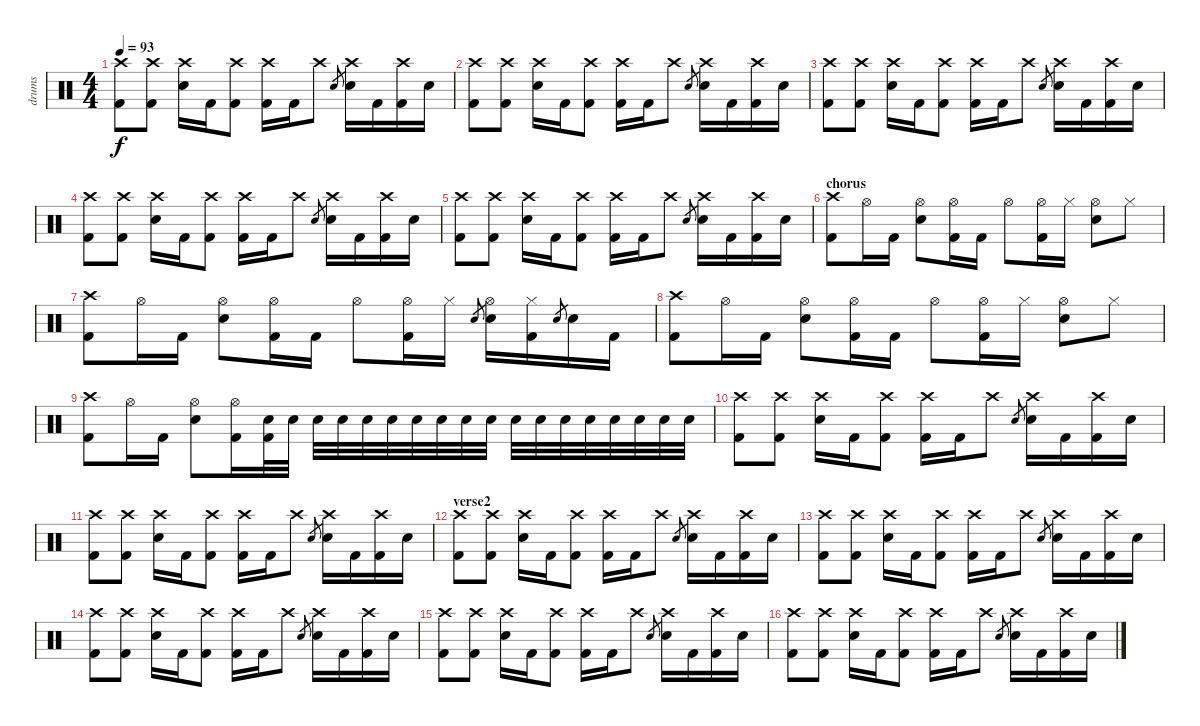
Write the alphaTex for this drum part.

\track ("drums" "drums") {instrument percussion}
\staff {score}
\articulation defaults
\ts (4 4)
\tempo 93
\clef neutral
\ks c
("Crash high (hit)" "Kick (hit) 2").8{dy f} ("Crash high (hit)" "Kick (hit) 2").8 ("Crash high (hit)" "Electric Snare (hit)").16 "Kick (hit) 2".16 ("Crash high (hit)" "Kick (hit) 2").8 ("Crash high (hit)" "Kick (hit) 2").16 "Kick (hit) 2".16 "Crash high (hit)".8 "Electric Snare (hit)".8{gr} ("Crash high (hit)" "Electric Snare (hit)").16 "Kick (hit) 2".16 ("Crash high (hit)" "Kick (hit) 2").16 "Electric Snare (hit)".16 |
("Crash high (hit)" "Kick (hit) 2").8 ("Crash high (hit)" "Kick (hit) 2").8 ("Crash high (hit)" "Electric Snare (hit)").16 "Kick (hit) 2".16 ("Crash high (hit)" "Kick (hit) 2").8 ("Crash high (hit)" "Kick (hit) 2").16 "Kick (hit) 2".16 "Crash high (hit)".8 "Electric Snare (hit)".8{gr} ("Crash high (hit)" "Electric Snare (hit)").16 "Kick (hit) 2".16 ("Crash high (hit)" "Kick (hit) 2").16 "Electric Snare (hit)".16 |
("Crash high (hit)" "Kick (hit) 2").8 ("Crash high (hit)" "Kick (hit) 2").8 ("Crash high (hit)" "Electric Snare (hit)").16 "Kick (hit) 2".16 ("Crash high (hit)" "Kick (hit) 2").8 ("Crash high (hit)" "Kick (hit) 2").16 "Kick (hit) 2".16 "Crash high (hit)".8 "Electric Snare (hit)".8{gr} ("Crash high (hit)" "Electric Snare (hit)").16 "Kick (hit) 2".16 ("Crash high (hit)" "Kick (hit) 2").16 "Electric Snare (hit)".16 |
("Crash high (hit)" "Kick (hit) 2").8 ("Crash high (hit)" "Kick (hit) 2").8 ("Crash high (hit)" "Electric Snare (hit)").16 "Kick (hit) 2".16 ("Crash high (hit)" "Kick (hit) 2").8 ("Crash high (hit)" "Kick (hit) 2").16 "Kick (hit) 2".16 "Crash high (hit)".8 "Electric Snare (hit)".8{gr} ("Crash high (hit)" "Electric Snare (hit)").16 "Kick (hit) 2".16 ("Crash high (hit)" "Kick (hit) 2").16 "Electric Snare (hit)".16 |
("Crash high (hit)" "Kick (hit) 2").8 ("Crash high (hit)" "Kick (hit) 2").8 ("Crash high (hit)" "Electric Snare (hit)").16 "Kick (hit) 2".16 ("Crash high (hit)" "Kick (hit) 2").8 ("Crash high (hit)" "Kick (hit) 2").16 "Kick (hit) 2".16 "Crash high (hit)".8 "Electric Snare (hit)".8{gr} ("Crash high (hit)" "Electric Snare (hit)").16 "Kick (hit) 2".16 ("Crash high (hit)" "Kick (hit) 2").16 "Electric Snare (hit)".16 |
\section ("" "chorus")
("Crash high (hit)" "Kick (hit) 2").8 "Hi-Hat (open)".16 "Kick (hit) 2".16 ("Hi-Hat (open)" "Electric Snare (hit)").8 ("Hi-Hat (open)" "Kick (hit) 2").16 "Kick (hit) 2".16 "Hi-Hat (open)".8 ("Hi-Hat (open)" "Kick (hit) 2").16 "Hi-Hat (closed)".16 ("Hi-Hat (open)" "Electric Snare (hit)").8 "Hi-Hat (closed)".8 |
("Crash high (hit)" "Kick (hit) 2").8 "Hi-Hat (open)".16 "Kick (hit) 2".16 ("Hi-Hat (open)" "Electric Snare (hit)").8 ("Hi-Hat (open)" "Kick (hit) 2").16 "Kick (hit) 2".16 "Hi-Hat (open)".8 ("Hi-Hat (open)" "Kick (hit) 2").16 "Hi-Hat (closed)".16 "Electric Snare (hit)".8{gr} ("Hi-Hat (open)" "Electric Snare (hit)").16 ("Hi-Hat (closed)" "Kick (hit) 2").16 "Electric Snare (hit)".8{gr} "Electric Snare (hit)".16 "Kick (hit) 2".16 |
("Crash high (hit)" "Kick (hit) 2").8 "Hi-Hat (open)".16 "Kick (hit) 2".16 ("Hi-Hat (open)" "Electric Snare (hit)").8 ("Hi-Hat (open)" "Kick (hit) 2").16 "Kick (hit) 2".16 "Hi-Hat (open)".8 ("Hi-Hat (open)" "Kick (hit) 2").16 "Hi-Hat (closed)".16 ("Hi-Hat (open)" "Electric Snare (hit)").8 "Hi-Hat (closed)".8 |
("Crash high (hit)" "Kick (hit) 2").8 "Hi-Hat (open)".16 "Kick (hit) 2".16 ("Hi-Hat (open)" "Electric Snare (hit)").8 ("Hi-Hat (open)" "Kick (hit) 2").16 ("Electric Snare (hit)" "Kick (hit) 2").32 "Electric Snare (hit)".32 "Electric Snare (hit)".32 "Electric Snare (hit)".32 "Electric Snare (hit)".32 "Electric Snare (hit)".32 "Electric Snare (hit)".32 "Electric Snare (hit)".32 "Electric Snare (hit)".32 "Electric Snare (hit)".32 "Electric Snare (hit)".32 "Electric Snare (hit)".32 "Electric Snare (hit)".32 "Electric Snare (hit)".32 "Electric Snare (hit)".32 "Electric Snare (hit)".32 "Electric Snare (hit)".32 "Electric Snare (hit)".32 |
("Crash high (hit)" "Kick (hit) 2").8 ("Crash high (hit)" "Kick (hit) 2").8 ("Crash high (hit)" "Electric Snare (hit)").16 "Kick (hit) 2".16 ("Crash high (hit)" "Kick (hit) 2").8 ("Crash high (hit)" "Kick (hit) 2").16 "Kick (hit) 2".16 "Crash high (hit)".8 "Electric Snare (hit)".8{gr} ("Crash high (hit)" "Electric Snare (hit)").16 "Kick (hit) 2".16 ("Crash high (hit)" "Kick (hit) 2").16 "Electric Snare (hit)".16 |
("Crash high (hit)" "Kick (hit) 2").8 ("Crash high (hit)" "Kick (hit) 2").8 ("Crash high (hit)" "Electric Snare (hit)").16 "Kick (hit) 2".16 ("Crash high (hit)" "Kick (hit) 2").8 ("Crash high (hit)" "Kick (hit) 2").16 "Kick (hit) 2".16 "Crash high (hit)".8 "Electric Snare (hit)".8{gr} ("Crash high (hit)" "Electric Snare (hit)").16 "Kick (hit) 2".16 ("Crash high (hit)" "Kick (hit) 2").16 "Electric Snare (hit)".16 |
\section ("" "verse2")
("Crash high (hit)" "Kick (hit) 2").8 ("Crash high (hit)" "Kick (hit) 2").8 ("Crash high (hit)" "Electric Snare (hit)").16 "Kick (hit) 2".16 ("Crash high (hit)" "Kick (hit) 2").8 ("Crash high (hit)" "Kick (hit) 2").16 "Kick (hit) 2".16 "Crash high (hit)".8 "Electric Snare (hit)".8{gr} ("Crash high (hit)" "Electric Snare (hit)").16 "Kick (hit) 2".16 ("Crash high (hit)" "Kick (hit) 2").16 "Electric Snare (hit)".16 |
("Crash high (hit)" "Kick (hit) 2").8 ("Crash high (hit)" "Kick (hit) 2").8 ("Crash high (hit)" "Electric Snare (hit)").16 "Kick (hit) 2".16 ("Crash high (hit)" "Kick (hit) 2").8 ("Crash high (hit)" "Kick (hit) 2").16 "Kick (hit) 2".16 "Crash high (hit)".8 "Electric Snare (hit)".8{gr} ("Crash high (hit)" "Electric Snare (hit)").16 "Kick (hit) 2".16 ("Crash high (hit)" "Kick (hit) 2").16 "Electric Snare (hit)".16 |
("Crash high (hit)" "Kick (hit) 2").8 ("Crash high (hit)" "Kick (hit) 2").8 ("Crash high (hit)" "Electric Snare (hit)").16 "Kick (hit) 2".16 ("Crash high (hit)" "Kick (hit) 2").8 ("Crash high (hit)" "Kick (hit) 2").16 "Kick (hit) 2".16 "Crash high (hit)".8 "Electric Snare (hit)".8{gr} ("Crash high (hit)" "Electric Snare (hit)").16 "Kick (hit) 2".16 ("Crash high (hit)" "Kick (hit) 2").16 "Electric Snare (hit)".16 |
("Crash high (hit)" "Kick (hit) 2").8 ("Crash high (hit)" "Kick (hit) 2").8 ("Crash high (hit)" "Electric Snare (hit)").16 "Kick (hit) 2".16 ("Crash high (hit)" "Kick (hit) 2").8 ("Crash high (hit)" "Kick (hit) 2").16 "Kick (hit) 2".16 "Crash high (hit)".8 "Electric Snare (hit)".8{gr} ("Crash high (hit)" "Electric Snare (hit)").16 "Kick (hit) 2".16 ("Crash high (hit)" "Kick (hit) 2").16 "Electric Snare (hit)".16 |
("Crash high (hit)" "Kick (hit) 2").8 ("Crash high (hit)" "Kick (hit) 2").8 ("Crash high (hit)" "Electric Snare (hit)").16 "Kick (hit) 2".16 ("Crash high (hit)" "Kick (hit) 2").8 ("Crash high (hit)" "Kick (hit) 2").16 "Kick (hit) 2".16 "Crash high (hit)".8 "Electric Snare (hit)".8{gr} ("Crash high (hit)" "Electric Snare (hit)").16 "Kick (hit) 2".16 ("Crash high (hit)" "Kick (hit) 2").16 "Electric Snare (hit)".16
